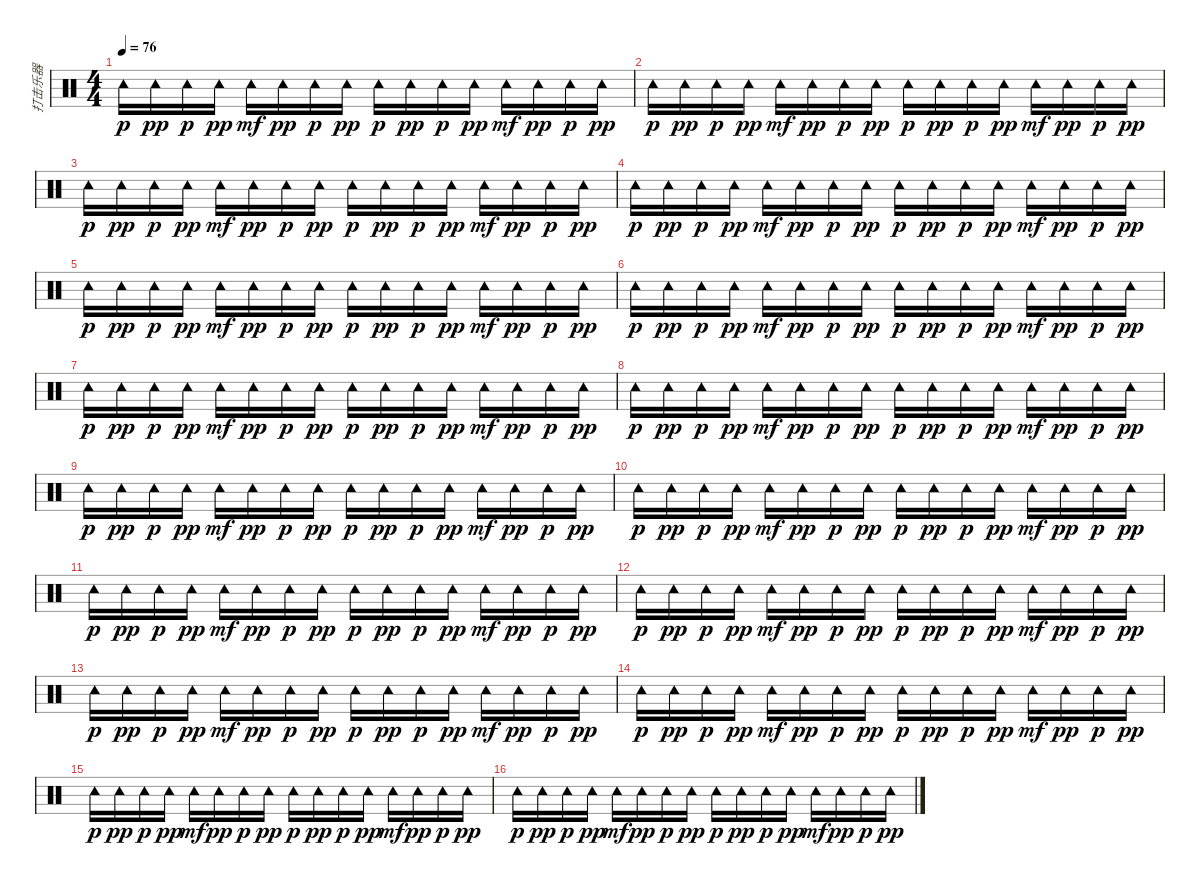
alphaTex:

\track ("打击乐器" "打击乐器") {instrument percussion}
\staff {score}
\articulation defaults
\ts (4 4)
\tempo 76
\clef neutral
\ks c "Tambourine (hit)".16{dy p} "Tambourine (hit)".16{dy pp} "Tambourine (hit)".16{dy p} "Tambourine (hit)".16{dy pp} "Tambourine (hit)".16{dy mf} "Tambourine (hit)".16{dy pp} "Tambourine (hit)".16{dy p} "Tambourine (hit)".16{dy pp} "Tambourine (hit)".16{dy p} "Tambourine (hit)".16{dy pp} "Tambourine (hit)".16{dy p} "Tambourine (hit)".16{dy pp} "Tambourine (hit)".16{dy mf} "Tambourine (hit)".16{dy pp} "Tambourine (hit)".16{dy p} "Tambourine (hit)".16{dy pp}
|
"Tambourine (hit)".16{dy p} "Tambourine (hit)".16{dy pp} "Tambourine (hit)".16{dy p} "Tambourine (hit)".16{dy pp} "Tambourine (hit)".16{dy mf} "Tambourine (hit)".16{dy pp} "Tambourine (hit)".16{dy p} "Tambourine (hit)".16{dy pp} "Tambourine (hit)".16{dy p} "Tambourine (hit)".16{dy pp} "Tambourine (hit)".16{dy p} "Tambourine (hit)".16{dy pp} "Tambourine (hit)".16{dy mf} "Tambourine (hit)".16{dy pp} "Tambourine (hit)".16{dy p} "Tambourine (hit)".16{dy pp} |
"Tambourine (hit)".16{dy p} "Tambourine (hit)".16{dy pp} "Tambourine (hit)".16{dy p} "Tambourine (hit)".16{dy pp} "Tambourine (hit)".16{dy mf} "Tambourine (hit)".16{dy pp} "Tambourine (hit)".16{dy p} "Tambourine (hit)".16{dy pp} "Tambourine (hit)".16{dy p} "Tambourine (hit)".16{dy pp} "Tambourine (hit)".16{dy p} "Tambourine (hit)".16{dy pp} "Tambourine (hit)".16{dy mf} "Tambourine (hit)".16{dy pp} "Tambourine (hit)".16{dy p} "Tambourine (hit)".16{dy pp} |
"Tambourine (hit)".16{dy p} "Tambourine (hit)".16{dy pp} "Tambourine (hit)".16{dy p} "Tambourine (hit)".16{dy pp} "Tambourine (hit)".16{dy mf} "Tambourine (hit)".16{dy pp} "Tambourine (hit)".16{dy p} "Tambourine (hit)".16{dy pp} "Tambourine (hit)".16{dy p} "Tambourine (hit)".16{dy pp} "Tambourine (hit)".16{dy p} "Tambourine (hit)".16{dy pp} "Tambourine (hit)".16{dy mf} "Tambourine (hit)".16{dy pp} "Tambourine (hit)".16{dy p} "Tambourine (hit)".16{dy pp} |
"Tambourine (hit)".16{dy p} "Tambourine (hit)".16{dy pp} "Tambourine (hit)".16{dy p} "Tambourine (hit)".16{dy pp} "Tambourine (hit)".16{dy mf} "Tambourine (hit)".16{dy pp} "Tambourine (hit)".16{dy p} "Tambourine (hit)".16{dy pp} "Tambourine (hit)".16{dy p} "Tambourine (hit)".16{dy pp} "Tambourine (hit)".16{dy p} "Tambourine (hit)".16{dy pp} "Tambourine (hit)".16{dy mf} "Tambourine (hit)".16{dy pp} "Tambourine (hit)".16{dy p} "Tambourine (hit)".16{dy pp} |
"Tambourine (hit)".16{dy p} "Tambourine (hit)".16{dy pp} "Tambourine (hit)".16{dy p} "Tambourine (hit)".16{dy pp} "Tambourine (hit)".16{dy mf} "Tambourine (hit)".16{dy pp} "Tambourine (hit)".16{dy p} "Tambourine (hit)".16{dy pp} "Tambourine (hit)".16{dy p} "Tambourine (hit)".16{dy pp} "Tambourine (hit)".16{dy p} "Tambourine (hit)".16{dy pp} "Tambourine (hit)".16{dy mf} "Tambourine (hit)".16{dy pp} "Tambourine (hit)".16{dy p} "Tambourine (hit)".16{dy pp} |
"Tambourine (hit)".16{dy p} "Tambourine (hit)".16{dy pp} "Tambourine (hit)".16{dy p} "Tambourine (hit)".16{dy pp} "Tambourine (hit)".16{dy mf} "Tambourine (hit)".16{dy pp} "Tambourine (hit)".16{dy p} "Tambourine (hit)".16{dy pp} "Tambourine (hit)".16{dy p} "Tambourine (hit)".16{dy pp} "Tambourine (hit)".16{dy p} "Tambourine (hit)".16{dy pp} "Tambourine (hit)".16{dy mf} "Tambourine (hit)".16{dy pp} "Tambourine (hit)".16{dy p} "Tambourine (hit)".16{dy pp} |
"Tambourine (hit)".16{dy p} "Tambourine (hit)".16{dy pp} "Tambourine (hit)".16{dy p} "Tambourine (hit)".16{dy pp} "Tambourine (hit)".16{dy mf} "Tambourine (hit)".16{dy pp} "Tambourine (hit)".16{dy p} "Tambourine (hit)".16{dy pp} "Tambourine (hit)".16{dy p} "Tambourine (hit)".16{dy pp} "Tambourine (hit)".16{dy p} "Tambourine (hit)".16{dy pp} "Tambourine (hit)".16{dy mf} "Tambourine (hit)".16{dy pp} "Tambourine (hit)".16{dy p} "Tambourine (hit)".16{dy pp} |
"Tambourine (hit)".16{dy p} "Tambourine (hit)".16{dy pp} "Tambourine (hit)".16{dy p} "Tambourine (hit)".16{dy pp} "Tambourine (hit)".16{dy mf} "Tambourine (hit)".16{dy pp} "Tambourine (hit)".16{dy p} "Tambourine (hit)".16{dy pp} "Tambourine (hit)".16{dy p} "Tambourine (hit)".16{dy pp} "Tambourine (hit)".16{dy p} "Tambourine (hit)".16{dy pp} "Tambourine (hit)".16{dy mf} "Tambourine (hit)".16{dy pp} "Tambourine (hit)".16{dy p} "Tambourine (hit)".16{dy pp} |
"Tambourine (hit)".16{dy p} "Tambourine (hit)".16{dy pp} "Tambourine (hit)".16{dy p} "Tambourine (hit)".16{dy pp} "Tambourine (hit)".16{dy mf} "Tambourine (hit)".16{dy pp} "Tambourine (hit)".16{dy p} "Tambourine (hit)".16{dy pp} "Tambourine (hit)".16{dy p} "Tambourine (hit)".16{dy pp} "Tambourine (hit)".16{dy p} "Tambourine (hit)".16{dy pp} "Tambourine (hit)".16{dy mf} "Tambourine (hit)".16{dy pp} "Tambourine (hit)".16{dy p} "Tambourine (hit)".16{dy pp} |
"Tambourine (hit)".16{dy p} "Tambourine (hit)".16{dy pp} "Tambourine (hit)".16{dy p} "Tambourine (hit)".16{dy pp} "Tambourine (hit)".16{dy mf} "Tambourine (hit)".16{dy pp} "Tambourine (hit)".16{dy p} "Tambourine (hit)".16{dy pp} "Tambourine (hit)".16{dy p} "Tambourine (hit)".16{dy pp} "Tambourine (hit)".16{dy p} "Tambourine (hit)".16{dy pp} "Tambourine (hit)".16{dy mf} "Tambourine (hit)".16{dy pp} "Tambourine (hit)".16{dy p} "Tambourine (hit)".16{dy pp} |
"Tambourine (hit)".16{dy p} "Tambourine (hit)".16{dy pp} "Tambourine (hit)".16{dy p} "Tambourine (hit)".16{dy pp} "Tambourine (hit)".16{dy mf} "Tambourine (hit)".16{dy pp} "Tambourine (hit)".16{dy p} "Tambourine (hit)".16{dy pp} "Tambourine (hit)".16{dy p} "Tambourine (hit)".16{dy pp} "Tambourine (hit)".16{dy p} "Tambourine (hit)".16{dy pp} "Tambourine (hit)".16{dy mf} "Tambourine (hit)".16{dy pp} "Tambourine (hit)".16{dy p} "Tambourine (hit)".16{dy pp} |
"Tambourine (hit)".16{dy p} "Tambourine (hit)".16{dy pp} "Tambourine (hit)".16{dy p} "Tambourine (hit)".16{dy pp} "Tambourine (hit)".16{dy mf} "Tambourine (hit)".16{dy pp} "Tambourine (hit)".16{dy p} "Tambourine (hit)".16{dy pp} "Tambourine (hit)".16{dy p} "Tambourine (hit)".16{dy pp} "Tambourine (hit)".16{dy p} "Tambourine (hit)".16{dy pp} "Tambourine (hit)".16{dy mf} "Tambourine (hit)".16{dy pp} "Tambourine (hit)".16{dy p} "Tambourine (hit)".16{dy pp} |
"Tambourine (hit)".16{dy p} "Tambourine (hit)".16{dy pp} "Tambourine (hit)".16{dy p} "Tambourine (hit)".16{dy pp} "Tambourine (hit)".16{dy mf} "Tambourine (hit)".16{dy pp} "Tambourine (hit)".16{dy p} "Tambourine (hit)".16{dy pp} "Tambourine (hit)".16{dy p} "Tambourine (hit)".16{dy pp} "Tambourine (hit)".16{dy p} "Tambourine (hit)".16{dy pp} "Tambourine (hit)".16{dy mf} "Tambourine (hit)".16{dy pp} "Tambourine (hit)".16{dy p} "Tambourine (hit)".16{dy pp} |
"Tambourine (hit)".16{dy p} "Tambourine (hit)".16{dy pp} "Tambourine (hit)".16{dy p} "Tambourine (hit)".16{dy pp} "Tambourine (hit)".16{dy mf} "Tambourine (hit)".16{dy pp} "Tambourine (hit)".16{dy p} "Tambourine (hit)".16{dy pp} "Tambourine (hit)".16{dy p} "Tambourine (hit)".16{dy pp} "Tambourine (hit)".16{dy p} "Tambourine (hit)".16{dy pp} "Tambourine (hit)".16{dy mf} "Tambourine (hit)".16{dy pp} "Tambourine (hit)".16{dy p} "Tambourine (hit)".16{dy pp} |
"Tambourine (hit)".16{dy p} "Tambourine (hit)".16{dy pp} "Tambourine (hit)".16{dy p} "Tambourine (hit)".16{dy pp} "Tambourine (hit)".16{dy mf} "Tambourine (hit)".16{dy pp} "Tambourine (hit)".16{dy p} "Tambourine (hit)".16{dy pp} "Tambourine (hit)".16{dy p} "Tambourine (hit)".16{dy pp} "Tambourine (hit)".16{dy p} "Tambourine (hit)".16{dy pp} "Tambourine (hit)".16{dy mf} "Tambourine (hit)".16{dy pp} "Tambourine (hit)".16{dy p} "Tambourine (hit)".16{dy pp}
